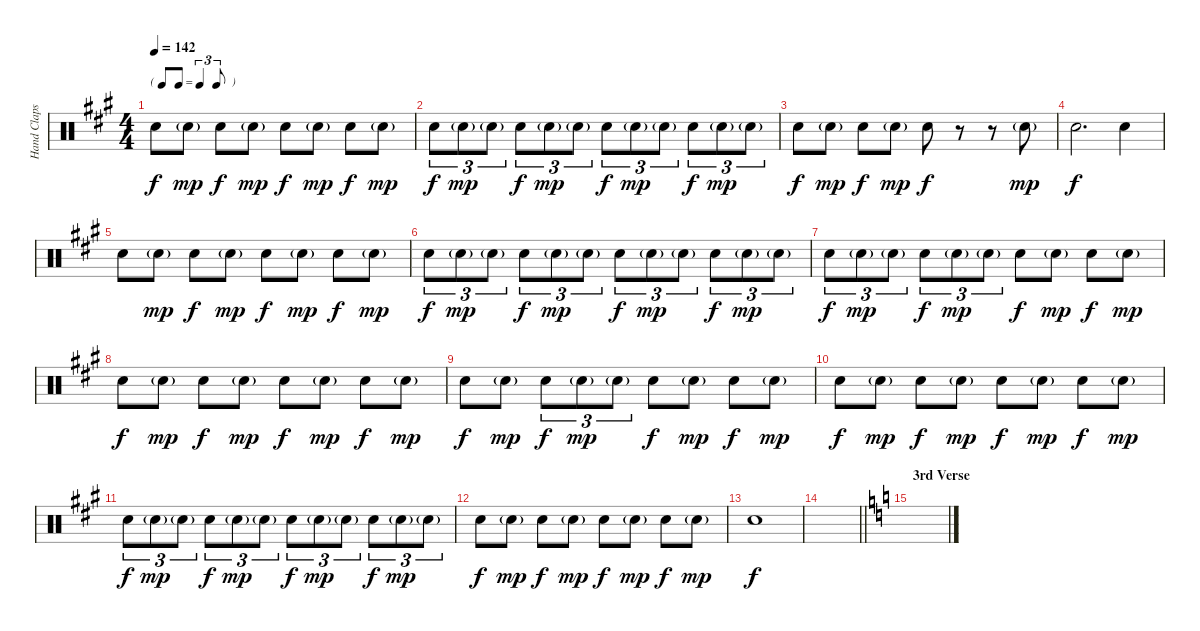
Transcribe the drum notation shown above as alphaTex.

\track ("Hand Claps" "Hand Claps") {instrument percussion}
\staff {score}
\articulation defaults
\ts (4 4)
\tf triplet8th
\tempo 142
\clef neutral
\ks a "Hand Clap (hit)".8{dy f} "Hand Clap (hit)"{g}.8{dy mp} "Hand Clap (hit)".8{dy f} "Hand Clap (hit)"{g}.8{dy mp} "Hand Clap (hit)".8{dy f} "Hand Clap (hit)"{g}.8{dy mp} "Hand Clap (hit)".8{dy f} "Hand Clap (hit)"{g}.8{dy mp}
|
"Hand Clap (hit)".8{tu (3 2) dy f} "Hand Clap (hit)"{g}.8{tu (3 2) dy mp} "Hand Clap (hit)"{g}.8{tu (3 2)} "Hand Clap (hit)".8{tu (3 2) dy f} "Hand Clap (hit)"{g}.8{tu (3 2) dy mp} "Hand Clap (hit)"{g}.8{tu (3 2)} "Hand Clap (hit)".8{tu (3 2) dy f} "Hand Clap (hit)"{g}.8{tu (3 2) dy mp} "Hand Clap (hit)"{g}.8{tu (3 2)} "Hand Clap (hit)".8{tu (3 2) dy f} "Hand Clap (hit)"{g}.8{tu (3 2) dy mp} "Hand Clap (hit)"{g}.8{tu (3 2)} |
"Hand Clap (hit)".8{dy f} "Hand Clap (hit)"{g}.8{dy mp} "Hand Clap (hit)".8{dy f} "Hand Clap (hit)"{g}.8{dy mp} "Hand Clap (hit)".8{dy f} r.8 r.8 "Hand Clap (hit)"{g}.8{dy mp} |
"Hand Clap (hit)".2{d dy f} "Hand Clap (hit)".4 |
"Hand Clap (hit)".8 "Hand Clap (hit)"{g}.8{dy mp} "Hand Clap (hit)".8{dy f} "Hand Clap (hit)"{g}.8{dy mp} "Hand Clap (hit)".8{dy f} "Hand Clap (hit)"{g}.8{dy mp} "Hand Clap (hit)".8{dy f} "Hand Clap (hit)"{g}.8{dy mp} |
"Hand Clap (hit)".8{tu (3 2) dy f} "Hand Clap (hit)"{g}.8{tu (3 2) dy mp} "Hand Clap (hit)"{g}.8{tu (3 2)} "Hand Clap (hit)".8{tu (3 2) dy f} "Hand Clap (hit)"{g}.8{tu (3 2) dy mp} "Hand Clap (hit)"{g}.8{tu (3 2)} "Hand Clap (hit)".8{tu (3 2) dy f} "Hand Clap (hit)"{g}.8{tu (3 2) dy mp} "Hand Clap (hit)"{g}.8{tu (3 2)} "Hand Clap (hit)".8{tu (3 2) dy f} "Hand Clap (hit)"{g}.8{tu (3 2) dy mp} "Hand Clap (hit)"{g}.8{tu (3 2)} |
"Hand Clap (hit)".8{tu (3 2) dy f} "Hand Clap (hit)"{g}.8{tu (3 2) dy mp} "Hand Clap (hit)"{g}.8{tu (3 2)} "Hand Clap (hit)".8{tu (3 2) dy f} "Hand Clap (hit)"{g}.8{tu (3 2) dy mp} "Hand Clap (hit)"{g}.8{tu (3 2)} "Hand Clap (hit)".8{dy f} "Hand Clap (hit)"{g}.8{dy mp} "Hand Clap (hit)".8{dy f} "Hand Clap (hit)"{g}.8{dy mp} |
"Hand Clap (hit)".8{dy f} "Hand Clap (hit)"{g}.8{dy mp} "Hand Clap (hit)".8{dy f} "Hand Clap (hit)"{g}.8{dy mp} "Hand Clap (hit)".8{dy f} "Hand Clap (hit)"{g}.8{dy mp} "Hand Clap (hit)".8{dy f} "Hand Clap (hit)"{g}.8{dy mp} |
"Hand Clap (hit)".8{dy f} "Hand Clap (hit)"{g}.8{dy mp} "Hand Clap (hit)".8{tu (3 2) dy f} "Hand Clap (hit)"{g}.8{tu (3 2) dy mp} "Hand Clap (hit)"{g}.8{tu (3 2)} "Hand Clap (hit)".8{dy f} "Hand Clap (hit)"{g}.8{dy mp} "Hand Clap (hit)".8{dy f} "Hand Clap (hit)"{g}.8{dy mp} |
"Hand Clap (hit)".8{dy f} "Hand Clap (hit)"{g}.8{dy mp} "Hand Clap (hit)".8{dy f} "Hand Clap (hit)"{g}.8{dy mp} "Hand Clap (hit)".8{dy f} "Hand Clap (hit)"{g}.8{dy mp} "Hand Clap (hit)".8{dy f} "Hand Clap (hit)"{g}.8{dy mp} |
"Hand Clap (hit)".8{tu (3 2) dy f} "Hand Clap (hit)"{g}.8{tu (3 2) dy mp} "Hand Clap (hit)"{g}.8{tu (3 2)} "Hand Clap (hit)".8{tu (3 2) dy f} "Hand Clap (hit)"{g}.8{tu (3 2) dy mp} "Hand Clap (hit)"{g}.8{tu (3 2)} "Hand Clap (hit)".8{tu (3 2) dy f} "Hand Clap (hit)"{g}.8{tu (3 2) dy mp} "Hand Clap (hit)"{g}.8{tu (3 2)} "Hand Clap (hit)".8{tu (3 2) dy f} "Hand Clap (hit)"{g}.8{tu (3 2) dy mp} "Hand Clap (hit)"{g}.8{tu (3 2)} |
"Hand Clap (hit)".8{dy f} "Hand Clap (hit)"{g}.8{dy mp} "Hand Clap (hit)".8{dy f} "Hand Clap (hit)"{g}.8{dy mp} "Hand Clap (hit)".8{dy f} "Hand Clap (hit)"{g}.8{dy mp} "Hand Clap (hit)".8{dy f} "Hand Clap (hit)"{g}.8{dy mp} |
"Hand Clap (hit)".1{dy f} |
\barLineRight lightlight
|
\section ("" "3rd Verse")
\ks c
